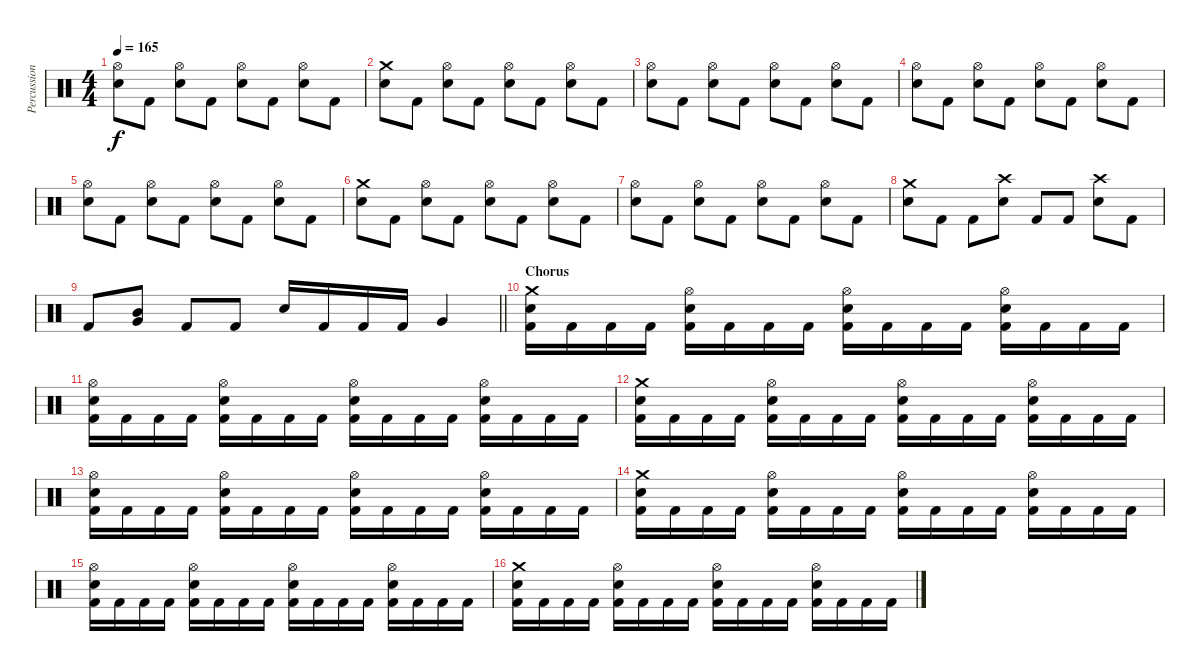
\track ("Percussions" "Percussion") {instrument percussion}
\staff {score}
\articulation defaults
\ts (4 4)
\tempo 165
\clef neutral
\ks c
("Hi-Hat (open)" "Electric Snare (hit)").8{dy f} "Kick (hit) 2".8 ("Hi-Hat (open)" "Electric Snare (hit)").8 "Kick (hit) 2".8 ("Hi-Hat (open)" "Electric Snare (hit)").8 "Kick (hit) 2".8 ("Hi-Hat (open)" "Electric Snare (hit)").8 "Kick (hit) 2".8 |
("Crash medium (hit)" "Electric Snare (hit)").8 "Kick (hit) 2".8 ("Hi-Hat (open)" "Electric Snare (hit)").8 "Kick (hit) 2".8 ("Hi-Hat (open)" "Electric Snare (hit)").8 "Kick (hit) 2".8 ("Hi-Hat (open)" "Electric Snare (hit)").8 "Kick (hit) 2".8 |
("Hi-Hat (open)" "Electric Snare (hit)").8 "Kick (hit) 2".8 ("Hi-Hat (open)" "Electric Snare (hit)").8 "Kick (hit) 2".8 ("Hi-Hat (open)" "Electric Snare (hit)").8 "Kick (hit) 2".8 ("Hi-Hat (open)" "Electric Snare (hit)").8 "Kick (hit) 2".8 |
("Hi-Hat (open)" "Electric Snare (hit)").8 "Kick (hit) 2".8 ("Hi-Hat (open)" "Electric Snare (hit)").8 "Kick (hit) 2".8 ("Hi-Hat (open)" "Electric Snare (hit)").8 "Kick (hit) 2".8 ("Hi-Hat (open)" "Electric Snare (hit)").8 "Kick (hit) 2".8 |
("Hi-Hat (open)" "Electric Snare (hit)").8 "Kick (hit) 2".8 ("Hi-Hat (open)" "Electric Snare (hit)").8 "Kick (hit) 2".8 ("Hi-Hat (open)" "Electric Snare (hit)").8 "Kick (hit) 2".8 ("Hi-Hat (open)" "Electric Snare (hit)").8 "Kick (hit) 2".8 |
("Crash medium (hit)" "Electric Snare (hit)").8 "Kick (hit) 2".8 ("Hi-Hat (open)" "Electric Snare (hit)").8 "Kick (hit) 2".8 ("Hi-Hat (open)" "Electric Snare (hit)").8 "Kick (hit) 2".8 ("Hi-Hat (open)" "Electric Snare (hit)").8 "Kick (hit) 2".8 |
("Hi-Hat (open)" "Electric Snare (hit)").8 "Kick (hit) 2".8 ("Hi-Hat (open)" "Electric Snare (hit)").8 "Kick (hit) 2".8 ("Hi-Hat (open)" "Electric Snare (hit)").8 "Kick (hit) 2".8 ("Hi-Hat (open)" "Electric Snare (hit)").8 "Kick (hit) 2".8 |
("Crash medium (hit)" "Electric Snare (hit)").8 "Kick (hit) 2".8 "Kick (hit) 2".8 ("Crash high (hit)" "Electric Snare (hit)").8 "Kick (hit) 2".8 "Kick (hit) 2".8 ("Crash high (hit)" "Electric Snare (hit)").8 "Kick (hit) 2".8 |
\barLineRight lightlight "Kick (hit) 2".8
("Mid Tom (hit)" "Very Low Tom (hit)").8 "Kick (hit) 2".8 "Kick (hit) 2".8 "Electric Snare (hit)".16 "Kick (hit) 2".16 "Kick (hit) 2".16 "Kick (hit) 2".16 "Very Low Tom (hit)".4 |
\section ("" "Chorus")
("Crash medium (hit)" "Electric Snare (hit)" "Kick (hit) 2").16 "Kick (hit) 2".16 "Kick (hit) 2".16 "Kick (hit) 2".16 ("Hi-Hat (open)" "Electric Snare (hit)" "Kick (hit) 2").16 "Kick (hit) 2".16 "Kick (hit) 2".16 "Kick (hit) 2".16 ("Hi-Hat (open)" "Electric Snare (hit)" "Kick (hit) 2").16 "Kick (hit) 2".16 "Kick (hit) 2".16 "Kick (hit) 2".16 ("Hi-Hat (open)" "Electric Snare (hit)" "Kick (hit) 2").16 "Kick (hit) 2".16 "Kick (hit) 2".16 "Kick (hit) 2".16 |
("Hi-Hat (open)" "Electric Snare (hit)" "Kick (hit) 2").16 "Kick (hit) 2".16 "Kick (hit) 2".16 "Kick (hit) 2".16 ("Hi-Hat (open)" "Electric Snare (hit)" "Kick (hit) 2").16 "Kick (hit) 2".16 "Kick (hit) 2".16 "Kick (hit) 2".16 ("Hi-Hat (open)" "Electric Snare (hit)" "Kick (hit) 2").16 "Kick (hit) 2".16 "Kick (hit) 2".16 "Kick (hit) 2".16 ("Hi-Hat (open)" "Electric Snare (hit)" "Kick (hit) 2").16 "Kick (hit) 2".16 "Kick (hit) 2".16 "Kick (hit) 2".16 |
("Crash medium (hit)" "Electric Snare (hit)" "Kick (hit) 2").16 "Kick (hit) 2".16 "Kick (hit) 2".16 "Kick (hit) 2".16 ("Hi-Hat (open)" "Electric Snare (hit)" "Kick (hit) 2").16 "Kick (hit) 2".16 "Kick (hit) 2".16 "Kick (hit) 2".16 ("Hi-Hat (open)" "Electric Snare (hit)" "Kick (hit) 2").16 "Kick (hit) 2".16 "Kick (hit) 2".16 "Kick (hit) 2".16 ("Hi-Hat (open)" "Electric Snare (hit)" "Kick (hit) 2").16 "Kick (hit) 2".16 "Kick (hit) 2".16 "Kick (hit) 2".16 |
("Hi-Hat (open)" "Electric Snare (hit)" "Kick (hit) 2").16 "Kick (hit) 2".16 "Kick (hit) 2".16 "Kick (hit) 2".16 ("Hi-Hat (open)" "Electric Snare (hit)" "Kick (hit) 2").16 "Kick (hit) 2".16 "Kick (hit) 2".16 "Kick (hit) 2".16 ("Hi-Hat (open)" "Electric Snare (hit)" "Kick (hit) 2").16 "Kick (hit) 2".16 "Kick (hit) 2".16 "Kick (hit) 2".16 ("Hi-Hat (open)" "Electric Snare (hit)" "Kick (hit) 2").16 "Kick (hit) 2".16 "Kick (hit) 2".16 "Kick (hit) 2".16 |
("Crash medium (hit)" "Electric Snare (hit)" "Kick (hit) 2").16 "Kick (hit) 2".16 "Kick (hit) 2".16 "Kick (hit) 2".16 ("Hi-Hat (open)" "Electric Snare (hit)" "Kick (hit) 2").16 "Kick (hit) 2".16 "Kick (hit) 2".16 "Kick (hit) 2".16 ("Hi-Hat (open)" "Electric Snare (hit)" "Kick (hit) 2").16 "Kick (hit) 2".16 "Kick (hit) 2".16 "Kick (hit) 2".16 ("Hi-Hat (open)" "Electric Snare (hit)" "Kick (hit) 2").16 "Kick (hit) 2".16 "Kick (hit) 2".16 "Kick (hit) 2".16 |
("Hi-Hat (open)" "Electric Snare (hit)" "Kick (hit) 2").16 "Kick (hit) 2".16 "Kick (hit) 2".16 "Kick (hit) 2".16 ("Hi-Hat (open)" "Electric Snare (hit)" "Kick (hit) 2").16 "Kick (hit) 2".16 "Kick (hit) 2".16 "Kick (hit) 2".16 ("Hi-Hat (open)" "Electric Snare (hit)" "Kick (hit) 2").16 "Kick (hit) 2".16 "Kick (hit) 2".16 "Kick (hit) 2".16 ("Hi-Hat (open)" "Electric Snare (hit)" "Kick (hit) 2").16 "Kick (hit) 2".16 "Kick (hit) 2".16 "Kick (hit) 2".16 |
("Crash medium (hit)" "Electric Snare (hit)" "Kick (hit) 2").16 "Kick (hit) 2".16 "Kick (hit) 2".16 "Kick (hit) 2".16 ("Hi-Hat (open)" "Electric Snare (hit)" "Kick (hit) 2").16 "Kick (hit) 2".16 "Kick (hit) 2".16 "Kick (hit) 2".16 ("Hi-Hat (open)" "Electric Snare (hit)" "Kick (hit) 2").16 "Kick (hit) 2".16 "Kick (hit) 2".16 "Kick (hit) 2".16 ("Hi-Hat (open)" "Electric Snare (hit)" "Kick (hit) 2").16 "Kick (hit) 2".16 "Kick (hit) 2".16 "Kick (hit) 2".16
